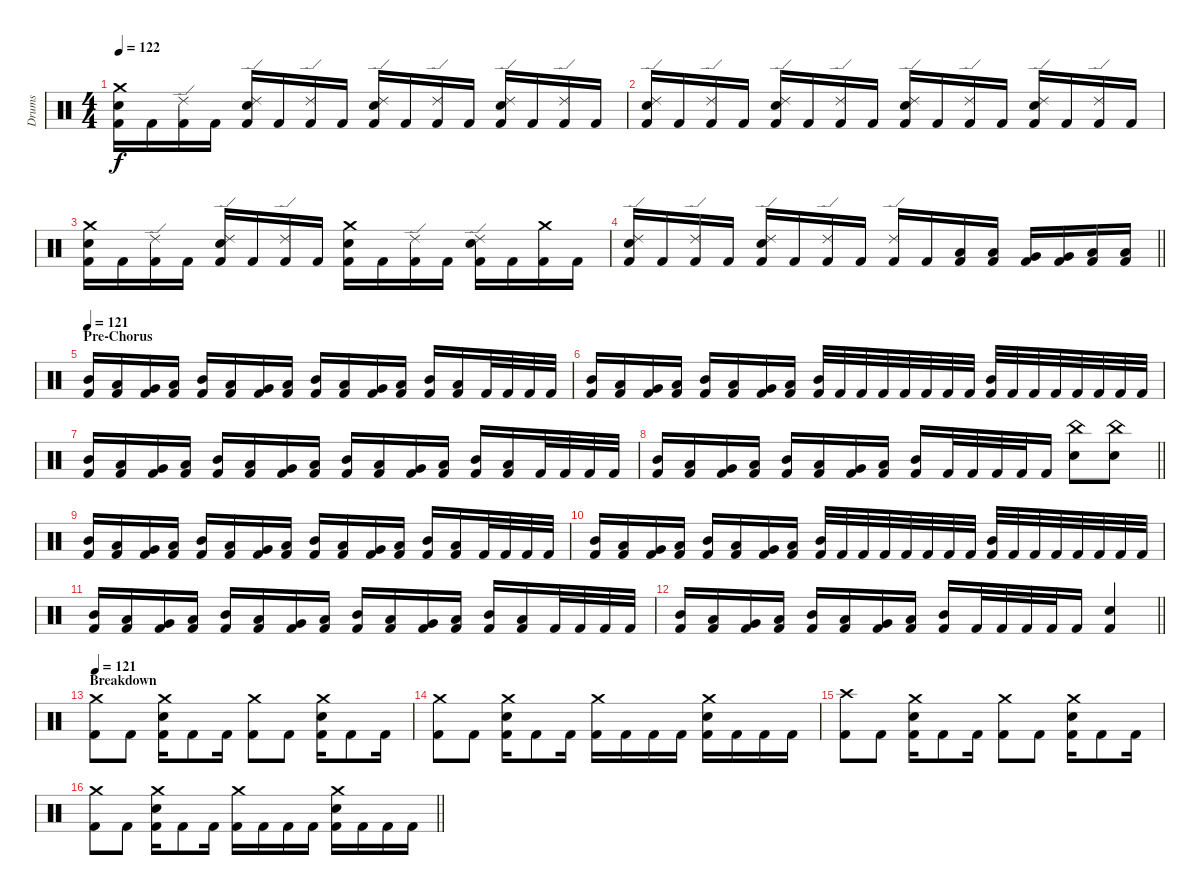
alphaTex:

\track ("Drums" "Drums") {instrument percussion}
\staff {score}
\articulation defaults
\ts (4 4)
\tempo 122
\clef neutral
\ks c
("Kick (hit) 2" "Snare (hit) 2" "Crash medium (hit)").16{dy f} "Kick (hit) 2".16 ("Kick (hit) 2" "Ride (edge) 2").16 "Kick (hit) 2".16 ("Kick (hit) 2" "Snare (hit) 2" "Ride (edge) 2").16 "Kick (hit) 2".16 ("Kick (hit) 2" "Ride (edge) 2").16 "Kick (hit) 2".16 ("Kick (hit) 2" "Snare (hit) 2" "Ride (edge) 2").16 "Kick (hit) 2".16 ("Kick (hit) 2" "Ride (edge) 2").16 "Kick (hit) 2".16 ("Kick (hit) 2" "Snare (hit) 2" "Ride (edge) 2").16 "Kick (hit) 2".16 ("Kick (hit) 2" "Ride (edge) 2").16 "Kick (hit) 2".16 |
("Kick (hit) 2" "Snare (hit) 2" "Ride (edge) 2").16 "Kick (hit) 2".16 ("Kick (hit) 2" "Ride (edge) 2").16 "Kick (hit) 2".16 ("Kick (hit) 2" "Snare (hit) 2" "Ride (edge) 2").16 "Kick (hit) 2".16 ("Kick (hit) 2" "Ride (edge) 2").16 "Kick (hit) 2".16 ("Kick (hit) 2" "Snare (hit) 2" "Ride (edge) 2").16 "Kick (hit) 2".16 ("Kick (hit) 2" "Ride (edge) 2").16 "Kick (hit) 2".16 ("Kick (hit) 2" "Snare (hit) 2" "Ride (edge) 2").16 "Kick (hit) 2".16 ("Kick (hit) 2" "Ride (edge) 2").16 "Kick (hit) 2".16 |
("Kick (hit) 2" "Snare (hit) 2" "Crash medium (hit)").16 "Kick (hit) 2".16 ("Kick (hit) 2" "Ride (edge) 2").16 "Kick (hit) 2".16 ("Kick (hit) 2" "Snare (hit) 2" "Ride (edge) 2").16 "Kick (hit) 2".16 ("Kick (hit) 2" "Ride (edge) 2").16 "Kick (hit) 2".16 ("Kick (hit) 2" "Snare (hit) 2" "Crash medium (hit)").16 "Kick (hit) 2".16 ("Kick (hit) 2" "Ride (edge) 2").16 "Kick (hit) 2".16 ("Kick (hit) 2" "Snare (hit) 2" "Ride (edge) 2").16 "Kick (hit) 2".16 ("Kick (hit) 2" "Crash medium (hit)").16 "Kick (hit) 2".16 |
\barLineRight lightlight
("Kick (hit) 2" "Snare (hit) 2" "Ride (edge) 2").16 "Kick (hit) 2".16 ("Kick (hit) 2" "Ride (edge) 2").16 "Kick (hit) 2".16 ("Kick (hit) 2" "Snare (hit) 2" "Ride (edge) 2").16 "Kick (hit) 2".16 ("Kick (hit) 2" "Ride (edge) 2").16 "Kick (hit) 2".16 ("Kick (hit) 2" "Ride (edge) 2").16 "Kick (hit) 2".16 ("Kick (hit) 2" "Low Tom (hit)").16 ("Kick (hit) 2" "Low Tom (hit)").16 ("Kick (hit) 2" "Very Low Tom (hit)").16 ("Kick (hit) 2" "Very Low Tom (hit)").16 ("Kick (hit) 2" "Low Floor Tom (hit)").16 ("Kick (hit) 2" "Low Floor Tom (hit)").16 |
\section ("" "Pre-Chorus")
\tempo 121
("Kick (hit) 2" "Mid Tom (hit)").16 ("Kick (hit) 2" "Low Tom (hit)").16 ("Kick (hit) 2" "Very Low Tom (hit)").16 ("Kick (hit) 2" "Low Floor Tom (hit)").16 ("Kick (hit) 2" "Mid Tom (hit)").16 ("Kick (hit) 2" "Low Tom (hit)").16 ("Kick (hit) 2" "Very Low Tom (hit)").16 ("Kick (hit) 2" "Low Floor Tom (hit)").16 ("Kick (hit) 2" "Mid Tom (hit)").16 ("Kick (hit) 2" "Low Tom (hit)").16 ("Kick (hit) 2" "Very Low Tom (hit)").16 ("Kick (hit) 2" "Low Floor Tom (hit)").16 ("Kick (hit) 2" "Mid Tom (hit)").16 ("Kick (hit) 2" "Low Tom (hit)").16 "Kick (hit) 2".32 "Kick (hit) 2".32 "Kick (hit) 2".32 "Kick (hit) 2".32 |
("Kick (hit) 2" "Mid Tom (hit)").16 ("Kick (hit) 2" "Low Tom (hit)").16 ("Kick (hit) 2" "Very Low Tom (hit)").16 ("Kick (hit) 2" "Low Floor Tom (hit)").16 ("Kick (hit) 2" "Mid Tom (hit)").16 ("Kick (hit) 2" "Low Tom (hit)").16 ("Kick (hit) 2" "Very Low Tom (hit)").16 ("Kick (hit) 2" "Low Floor Tom (hit)").16 ("Kick (hit) 2" "Mid Tom (hit)").32 "Kick (hit) 2".32 "Kick (hit) 2".32 "Kick (hit) 2".32 "Kick (hit) 2".32 "Kick (hit) 2".32 "Kick (hit) 2".32 "Kick (hit) 2".32 ("Kick (hit) 2" "Mid Tom (hit)").32 "Kick (hit) 2".32 "Kick (hit) 2".32 "Kick (hit) 2".32 "Kick (hit) 2".32 "Kick (hit) 2".32 "Kick (hit) 2".32 "Kick (hit) 2".32 |
("Kick (hit) 2" "Mid Tom (hit)").16 ("Kick (hit) 2" "Low Tom (hit)").16 ("Kick (hit) 2" "Very Low Tom (hit)").16 ("Kick (hit) 2" "Low Floor Tom (hit)").16 ("Kick (hit) 2" "Mid Tom (hit)").16 ("Kick (hit) 2" "Low Tom (hit)").16 ("Kick (hit) 2" "Very Low Tom (hit)").16 ("Kick (hit) 2" "Low Floor Tom (hit)").16 ("Kick (hit) 2" "Mid Tom (hit)").16 ("Kick (hit) 2" "Low Tom (hit)").16 ("Kick (hit) 2" "Very Low Tom (hit)").16 ("Kick (hit) 2" "Low Floor Tom (hit)").16 ("Kick (hit) 2" "Mid Tom (hit)").16 ("Kick (hit) 2" "Low Tom (hit)").16 "Kick (hit) 2".32 "Kick (hit) 2".32 "Kick (hit) 2".32 "Kick (hit) 2".32 |
\barLineRight lightlight
("Kick (hit) 2" "Mid Tom (hit)").16 ("Kick (hit) 2" "Low Tom (hit)").16 ("Kick (hit) 2" "Very Low Tom (hit)").16 ("Kick (hit) 2" "Low Floor Tom (hit)").16 ("Kick (hit) 2" "Mid Tom (hit)").16 ("Kick (hit) 2" "Low Tom (hit)").16 ("Kick (hit) 2" "Very Low Tom (hit)").16 ("Kick (hit) 2" "Low Floor Tom (hit)").16 ("Kick (hit) 2" "Mid Tom (hit)").16 "Kick (hit) 2".32 "Kick (hit) 2".32 "Kick (hit) 2".32 "Kick (hit) 2".32 "Kick (hit) 2".16 ("Snare (hit) 2" "China (hit)").8 ("Snare (hit) 2" "China (hit)").8 |
\section ("" "")
("Kick (hit) 2" "Mid Tom (hit)").16 ("Kick (hit) 2" "Low Tom (hit)").16 ("Kick (hit) 2" "Very Low Tom (hit)").16 ("Kick (hit) 2" "Low Floor Tom (hit)").16 ("Kick (hit) 2" "Mid Tom (hit)").16 ("Kick (hit) 2" "Low Tom (hit)").16 ("Kick (hit) 2" "Very Low Tom (hit)").16 ("Kick (hit) 2" "Low Floor Tom (hit)").16 ("Kick (hit) 2" "Mid Tom (hit)").16 ("Kick (hit) 2" "Low Tom (hit)").16 ("Kick (hit) 2" "Very Low Tom (hit)").16 ("Kick (hit) 2" "Low Floor Tom (hit)").16 ("Kick (hit) 2" "Mid Tom (hit)").16 ("Kick (hit) 2" "Low Tom (hit)").16 "Kick (hit) 2".32 "Kick (hit) 2".32 "Kick (hit) 2".32 "Kick (hit) 2".32 |
("Kick (hit) 2" "Mid Tom (hit)").16 ("Kick (hit) 2" "Low Tom (hit)").16 ("Kick (hit) 2" "Very Low Tom (hit)").16 ("Kick (hit) 2" "Low Floor Tom (hit)").16 ("Kick (hit) 2" "Mid Tom (hit)").16 ("Kick (hit) 2" "Low Tom (hit)").16 ("Kick (hit) 2" "Very Low Tom (hit)").16 ("Kick (hit) 2" "Low Floor Tom (hit)").16 ("Kick (hit) 2" "Mid Tom (hit)").32 "Kick (hit) 2".32 "Kick (hit) 2".32 "Kick (hit) 2".32 "Kick (hit) 2".32 "Kick (hit) 2".32 "Kick (hit) 2".32 "Kick (hit) 2".32 ("Kick (hit) 2" "Mid Tom (hit)").32 "Kick (hit) 2".32 "Kick (hit) 2".32 "Kick (hit) 2".32 "Kick (hit) 2".32 "Kick (hit) 2".32 "Kick (hit) 2".32 "Kick (hit) 2".32 |
("Kick (hit) 2" "Mid Tom (hit)").16 ("Kick (hit) 2" "Low Tom (hit)").16 ("Kick (hit) 2" "Very Low Tom (hit)").16 ("Kick (hit) 2" "Low Floor Tom (hit)").16 ("Kick (hit) 2" "Mid Tom (hit)").16 ("Kick (hit) 2" "Low Tom (hit)").16 ("Kick (hit) 2" "Very Low Tom (hit)").16 ("Kick (hit) 2" "Low Floor Tom (hit)").16 ("Kick (hit) 2" "Mid Tom (hit)").16 ("Kick (hit) 2" "Low Tom (hit)").16 ("Kick (hit) 2" "Very Low Tom (hit)").16 ("Kick (hit) 2" "Low Floor Tom (hit)").16 ("Kick (hit) 2" "Mid Tom (hit)").16 ("Kick (hit) 2" "Low Tom (hit)").16 "Kick (hit) 2".32 "Kick (hit) 2".32 "Kick (hit) 2".32 "Kick (hit) 2".32 |
\barLineRight lightlight
("Kick (hit) 2" "Mid Tom (hit)").16 ("Kick (hit) 2" "Low Tom (hit)").16 ("Kick (hit) 2" "Very Low Tom (hit)").16 ("Kick (hit) 2" "Low Floor Tom (hit)").16 ("Kick (hit) 2" "Mid Tom (hit)").16 ("Kick (hit) 2" "Low Tom (hit)").16 ("Kick (hit) 2" "Very Low Tom (hit)").16 ("Kick (hit) 2" "Low Floor Tom (hit)").16 ("Kick (hit) 2" "Mid Tom (hit)").16 "Kick (hit) 2".32 "Kick (hit) 2".32 "Kick (hit) 2".32 "Kick (hit) 2".32 "Kick (hit) 2".16 ("Kick (hit) 2" "Snare (hit) 2").4 |
\section ("" "Breakdown")
\tempo 121
("Kick (hit) 2" "Crash medium (hit)").8 "Kick (hit) 2".8 ("Kick (hit) 2" "Snare (hit) 2" "Crash medium (hit)").16 "Kick (hit) 2".8 "Kick (hit) 2".16 ("Kick (hit) 2" "Crash medium (hit)").8 "Kick (hit) 2".8 ("Kick (hit) 2" "Snare (hit) 2" "Crash medium (hit)").16 "Kick (hit) 2".8 "Kick (hit) 2".16 |
("Kick (hit) 2" "Crash medium (hit)").8 "Kick (hit) 2".8 ("Kick (hit) 2" "Snare (hit) 2" "Crash medium (hit)").16 "Kick (hit) 2".8 "Kick (hit) 2".16 ("Kick (hit) 2" "Crash medium (hit)").16 "Kick (hit) 2".16 "Kick (hit) 2".16 "Kick (hit) 2".16 ("Kick (hit) 2" "Snare (hit) 2" "Crash medium (hit)").16 "Kick (hit) 2".16 "Kick (hit) 2".16 "Kick (hit) 2".16 |
("Kick (hit) 2" "Crash high (hit)").8 "Kick (hit) 2".8 ("Kick (hit) 2" "Snare (hit) 2" "Crash medium (hit)").16 "Kick (hit) 2".8 "Kick (hit) 2".16 ("Kick (hit) 2" "Crash medium (hit)").8 "Kick (hit) 2".8 ("Kick (hit) 2" "Snare (hit) 2" "Crash medium (hit)").16 "Kick (hit) 2".8 "Kick (hit) 2".16 |
\barLineRight lightlight
("Kick (hit) 2" "Crash medium (hit)").8 "Kick (hit) 2".8 ("Kick (hit) 2" "Snare (hit) 2" "Crash medium (hit)").16 "Kick (hit) 2".8 "Kick (hit) 2".16 ("Kick (hit) 2" "Crash medium (hit)").16 "Kick (hit) 2".16 "Kick (hit) 2".16 "Kick (hit) 2".16 ("Kick (hit) 2" "Snare (hit) 2" "Crash medium (hit)").16 "Kick (hit) 2".16 "Kick (hit) 2".16 "Kick (hit) 2".16
